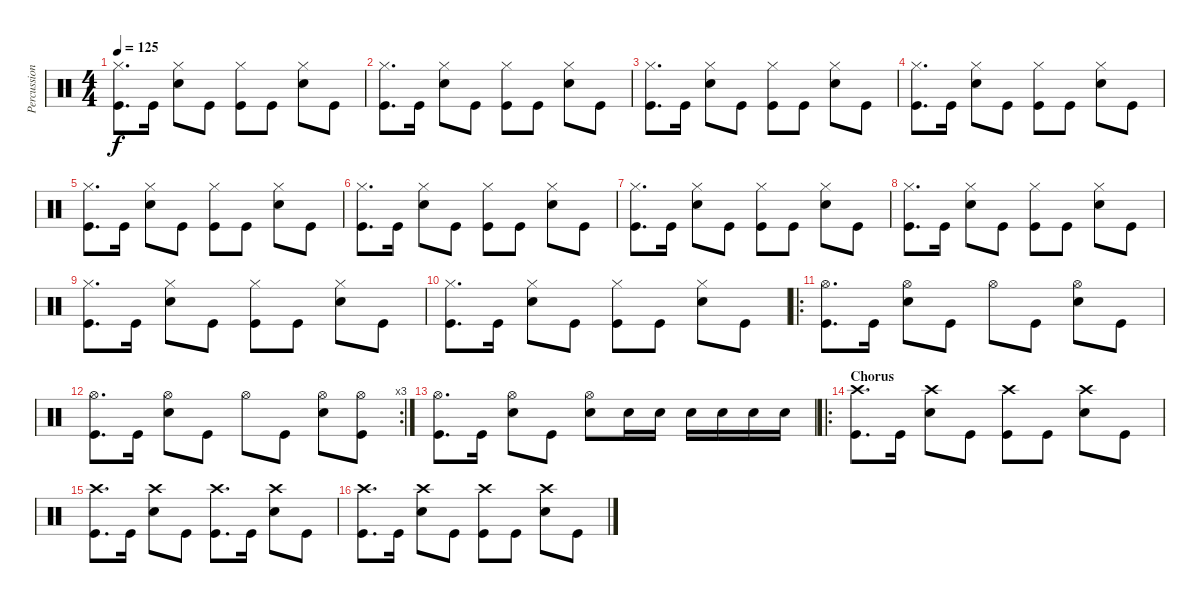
\track ("Percussion" "Percussion") {instrument percussion}
\staff {score}
\articulation defaults
\ts (4 4)
\tempo 125
\clef neutral
\ks c
("Hi-Hat (closed)" "Kick (hit)").8{d dy f} "Kick (hit)".16 ("Hi-Hat (closed)" "Snare (hit) 2").8 "Kick (hit)".8 ("Hi-Hat (closed)" "Kick (hit)").8 "Kick (hit)".8 ("Hi-Hat (closed)" "Snare (hit) 2").8 "Kick (hit)".8 |
("Hi-Hat (closed)" "Kick (hit)").8{d} "Kick (hit)".16 ("Hi-Hat (closed)" "Snare (hit) 2").8 "Kick (hit)".8 ("Hi-Hat (closed)" "Kick (hit)").8 "Kick (hit)".8 ("Hi-Hat (closed)" "Snare (hit) 2").8 "Kick (hit)".8 |
("Hi-Hat (closed)" "Kick (hit)").8{d} "Kick (hit)".16 ("Hi-Hat (closed)" "Snare (hit) 2").8 "Kick (hit)".8 ("Hi-Hat (closed)" "Kick (hit)").8 "Kick (hit)".8 ("Hi-Hat (closed)" "Snare (hit) 2").8 "Kick (hit)".8 |
("Hi-Hat (closed)" "Kick (hit)").8{d} "Kick (hit)".16 ("Hi-Hat (closed)" "Snare (hit) 2").8 "Kick (hit)".8 ("Hi-Hat (closed)" "Kick (hit)").8 "Kick (hit)".8 ("Hi-Hat (closed)" "Snare (hit) 2").8 "Kick (hit)".8 |
("Hi-Hat (closed)" "Kick (hit)").8{d} "Kick (hit)".16 ("Hi-Hat (closed)" "Snare (hit) 2").8 "Kick (hit)".8 ("Hi-Hat (closed)" "Kick (hit)").8 "Kick (hit)".8 ("Hi-Hat (closed)" "Snare (hit) 2").8 "Kick (hit)".8 |
("Hi-Hat (closed)" "Kick (hit)").8{d} "Kick (hit)".16 ("Hi-Hat (closed)" "Snare (hit) 2").8 "Kick (hit)".8 ("Hi-Hat (closed)" "Kick (hit)").8 "Kick (hit)".8 ("Hi-Hat (closed)" "Snare (hit) 2").8 "Kick (hit)".8 |
("Hi-Hat (closed)" "Kick (hit)").8{d} "Kick (hit)".16 ("Hi-Hat (closed)" "Snare (hit) 2").8 "Kick (hit)".8 ("Hi-Hat (closed)" "Kick (hit)").8 "Kick (hit)".8 ("Hi-Hat (closed)" "Snare (hit) 2").8 "Kick (hit)".8 |
("Hi-Hat (closed)" "Kick (hit)").8{d} "Kick (hit)".16 ("Hi-Hat (closed)" "Snare (hit) 2").8 "Kick (hit)".8 ("Hi-Hat (closed)" "Kick (hit)").8 "Kick (hit)".8 ("Hi-Hat (closed)" "Snare (hit) 2").8 "Kick (hit)".8 |
("Hi-Hat (closed)" "Kick (hit)").8{d} "Kick (hit)".16 ("Hi-Hat (closed)" "Snare (hit) 2").8 "Kick (hit)".8 ("Hi-Hat (closed)" "Kick (hit)").8 "Kick (hit)".8 ("Hi-Hat (closed)" "Snare (hit) 2").8 "Kick (hit)".8 |
("Hi-Hat (closed)" "Kick (hit)").8{d} "Kick (hit)".16 ("Hi-Hat (closed)" "Snare (hit) 2").8 "Kick (hit)".8 ("Hi-Hat (closed)" "Kick (hit)").8 "Kick (hit)".8 ("Hi-Hat (closed)" "Snare (hit) 2").8 "Kick (hit)".8 |
\ro
("Hi-Hat (open)" "Kick (hit)").8{d} "Kick (hit)".16 ("Hi-Hat (open)" "Snare (hit) 2").8 "Kick (hit)".8 "Hi-Hat (open)".8 "Kick (hit)".8 ("Hi-Hat (open)" "Snare (hit) 2").8 "Kick (hit)".8 |
\rc 3
("Hi-Hat (open)" "Kick (hit)").8{d} "Kick (hit)".16 ("Hi-Hat (open)" "Snare (hit) 2").8 "Kick (hit)".8 "Hi-Hat (open)".8 "Kick (hit)".8 ("Hi-Hat (open)" "Snare (hit) 2").8 ("Hi-Hat (open)" "Kick (hit)").8 |
("Hi-Hat (open)" "Kick (hit)").8{d} "Kick (hit)".16 ("Hi-Hat (open)" "Snare (hit) 2").8 "Kick (hit)".8 ("Hi-Hat (open)" "Snare (hit) 2").8 "Snare (hit) 2".16 "Snare (hit) 2".16 "Snare (hit) 2".16 "Snare (hit) 2".16 "Snare (hit) 2".16 "Snare (hit) 2".16 |
\ro
\section ("" "Chorus")
("Crash high (hit)" "Kick (hit)").8{d} "Kick (hit)".16 ("Crash high (hit)" "Snare (hit) 2").8 "Kick (hit)".8 ("Crash high (hit)" "Kick (hit)").8 "Kick (hit)".8 ("Crash high (hit)" "Snare (hit) 2").8 "Kick (hit)".8 |
("Crash high (hit)" "Kick (hit)").8{d} "Kick (hit)".16 ("Crash high (hit)" "Snare (hit) 2").8 "Kick (hit)".8 ("Crash high (hit)" "Kick (hit)").8{d} "Kick (hit)".16 ("Crash high (hit)" "Snare (hit) 2").8 "Kick (hit)".8 |
("Crash high (hit)" "Kick (hit)").8{d} "Kick (hit)".16 ("Crash high (hit)" "Snare (hit) 2").8 "Kick (hit)".8 ("Crash high (hit)" "Kick (hit)").8 "Kick (hit)".8 ("Crash high (hit)" "Snare (hit) 2").8 "Kick (hit)".8
